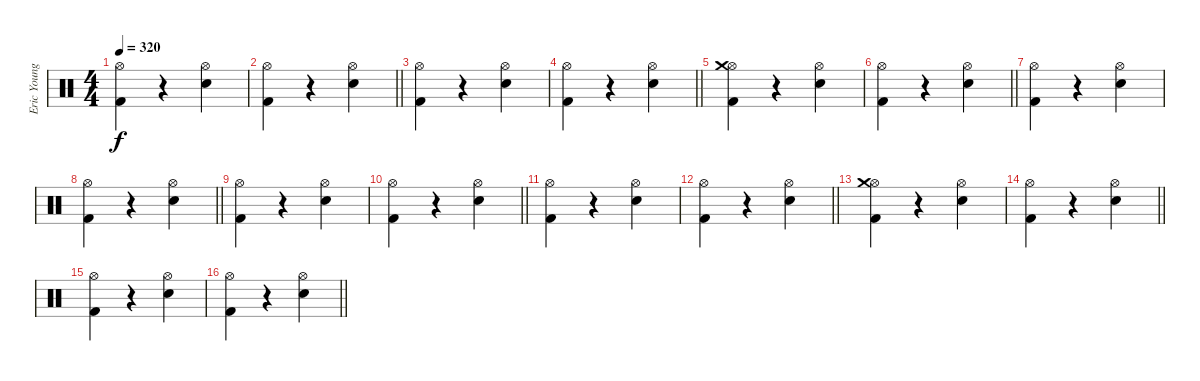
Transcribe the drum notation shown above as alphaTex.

\track ("Eric Young (Drums)" "Eric Young") {instrument percussion}
\staff {score}
\articulation defaults
\ts (4 4)
\tempo 320
\clef neutral
\ks c
("Hi-Hat (open)" "Kick (hit) 2").4{dy f} r.4 ("Hi-Hat (open)" "Snare (hit) 2").4 |
\barLineRight lightlight
("Hi-Hat (open)" "Kick (hit) 2").4 r.4 ("Hi-Hat (open)" "Snare (hit) 2").4 |
("Hi-Hat (open)" "Kick (hit) 2").4 r.4 ("Hi-Hat (open)" "Snare (hit) 2").4 |
\barLineRight lightlight
("Hi-Hat (open)" "Kick (hit) 2").4 r.4 ("Hi-Hat (open)" "Snare (hit) 2").4 |
("Hi-Hat (open)" "Kick (hit) 2" "Crash medium (hit)").4 r.4 ("Hi-Hat (open)" "Snare (hit) 2").4 |
\barLineRight lightlight
("Hi-Hat (open)" "Kick (hit) 2").4 r.4 ("Hi-Hat (open)" "Snare (hit) 2").4 |
("Hi-Hat (open)" "Kick (hit) 2").4 r.4 ("Hi-Hat (open)" "Snare (hit) 2").4 |
\barLineRight lightlight
("Hi-Hat (open)" "Kick (hit) 2").4 r.4 ("Hi-Hat (open)" "Snare (hit) 2").4 |
("Hi-Hat (open)" "Kick (hit) 2").4 r.4 ("Hi-Hat (open)" "Snare (hit) 2").4 |
\barLineRight lightlight
("Hi-Hat (open)" "Kick (hit) 2").4 r.4 ("Hi-Hat (open)" "Snare (hit) 2").4 |
("Hi-Hat (open)" "Kick (hit) 2").4 r.4 ("Hi-Hat (open)" "Snare (hit) 2").4 |
\barLineRight lightlight
("Hi-Hat (open)" "Kick (hit) 2").4 r.4 ("Hi-Hat (open)" "Snare (hit) 2").4 |
("Hi-Hat (open)" "Kick (hit) 2" "Crash medium (hit)").4 r.4 ("Hi-Hat (open)" "Snare (hit) 2").4 |
\barLineRight lightlight
("Hi-Hat (open)" "Kick (hit) 2").4 r.4 ("Hi-Hat (open)" "Snare (hit) 2").4 |
("Hi-Hat (open)" "Kick (hit) 2").4 r.4 ("Hi-Hat (open)" "Snare (hit) 2").4 |
\barLineRight lightlight
("Hi-Hat (open)" "Kick (hit) 2").4 r.4 ("Hi-Hat (open)" "Snare (hit) 2").4
